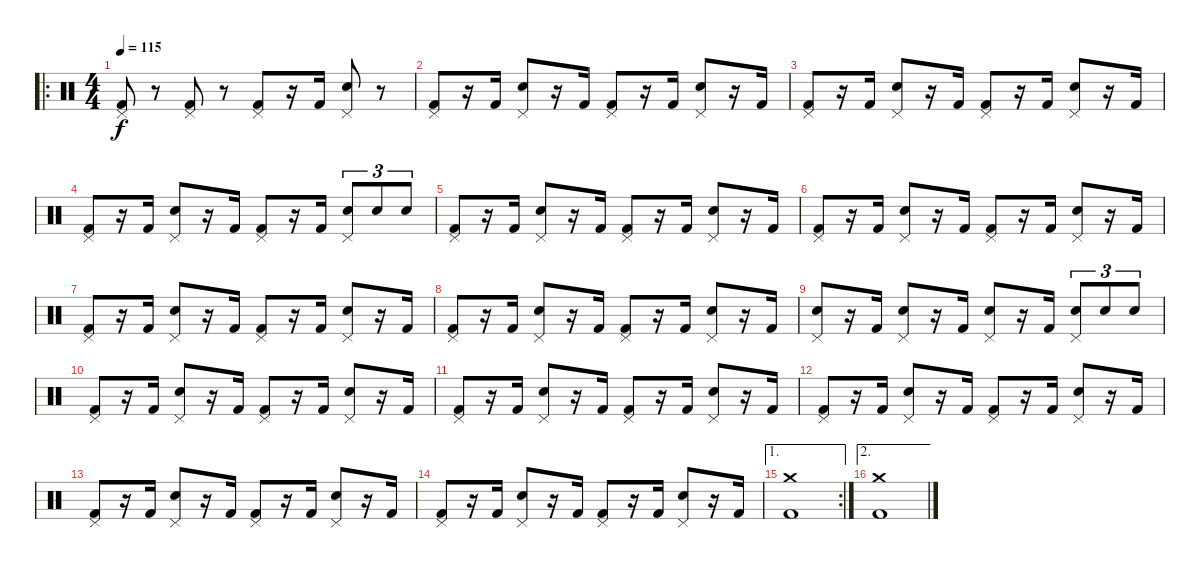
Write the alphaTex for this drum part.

\track "" {instrument percussion}
\staff {score}
\articulation defaults
\ro
\ts (4 4)
\tempo 115
\clef neutral
\ks c
("Pedal Hi-Hat (hit)" "Kick (hit) 2").8{dy f} r.8 ("Pedal Hi-Hat (hit)" "Kick (hit) 2").8 r.8 ("Pedal Hi-Hat (hit)" "Kick (hit) 2").8 r.16 "Kick (hit) 2".16 ("Pedal Hi-Hat (hit)" "Snare (hit) 2").8 r.8 |
("Pedal Hi-Hat (hit)" "Kick (hit) 2").8 r.16 "Kick (hit) 2".16 ("Pedal Hi-Hat (hit)" "Snare (hit) 2").8 r.16 "Kick (hit) 2".16 ("Pedal Hi-Hat (hit)" "Kick (hit) 2").8 r.16 "Kick (hit) 2".16 ("Pedal Hi-Hat (hit)" "Snare (hit) 2").8 r.16 "Kick (hit) 2".16 |
("Pedal Hi-Hat (hit)" "Kick (hit) 2").8 r.16 "Kick (hit) 2".16 ("Pedal Hi-Hat (hit)" "Snare (hit) 2").8 r.16 "Kick (hit) 2".16 ("Pedal Hi-Hat (hit)" "Kick (hit) 2").8 r.16 "Kick (hit) 2".16 ("Pedal Hi-Hat (hit)" "Snare (hit) 2").8 r.16 "Kick (hit) 2".16 |
("Pedal Hi-Hat (hit)" "Kick (hit) 2").8 r.16 "Kick (hit) 2".16 ("Pedal Hi-Hat (hit)" "Snare (hit) 2").8 r.16 "Kick (hit) 2".16 ("Pedal Hi-Hat (hit)" "Kick (hit) 2").8 r.16 "Kick (hit) 2".16 ("Pedal Hi-Hat (hit)" "Snare (hit) 2").8{tu (3 2)} "Snare (hit) 2".8{tu (3 2)} "Snare (hit) 2".8{tu (3 2)} |
("Pedal Hi-Hat (hit)" "Kick (hit) 2").8 r.16 "Kick (hit) 2".16 ("Pedal Hi-Hat (hit)" "Snare (hit) 2").8 r.16 "Kick (hit) 2".16 ("Pedal Hi-Hat (hit)" "Kick (hit) 2").8 r.16 "Kick (hit) 2".16 ("Pedal Hi-Hat (hit)" "Snare (hit) 2").8 r.16 "Kick (hit) 2".16 |
("Pedal Hi-Hat (hit)" "Kick (hit) 2").8 r.16 "Kick (hit) 2".16 ("Pedal Hi-Hat (hit)" "Snare (hit) 2").8 r.16 "Kick (hit) 2".16 ("Pedal Hi-Hat (hit)" "Kick (hit) 2").8 r.16 "Kick (hit) 2".16 ("Pedal Hi-Hat (hit)" "Snare (hit) 2").8 r.16 "Kick (hit) 2".16 |
("Pedal Hi-Hat (hit)" "Kick (hit) 2").8 r.16 "Kick (hit) 2".16 ("Pedal Hi-Hat (hit)" "Snare (hit) 2").8 r.16 "Kick (hit) 2".16 ("Pedal Hi-Hat (hit)" "Kick (hit) 2").8 r.16 "Kick (hit) 2".16 ("Pedal Hi-Hat (hit)" "Snare (hit) 2").8 r.16 "Kick (hit) 2".16 |
("Pedal Hi-Hat (hit)" "Kick (hit) 2").8 r.16 "Kick (hit) 2".16 ("Pedal Hi-Hat (hit)" "Snare (hit) 2").8 r.16 "Kick (hit) 2".16 ("Pedal Hi-Hat (hit)" "Kick (hit) 2").8 r.16 "Kick (hit) 2".16 ("Pedal Hi-Hat (hit)" "Snare (hit) 2").8 r.16 "Kick (hit) 2".16 |
("Pedal Hi-Hat (hit)" "Snare (hit) 2").8 r.16 "Kick (hit) 2".16 ("Pedal Hi-Hat (hit)" "Snare (hit) 2").8 r.16 "Kick (hit) 2".16 ("Pedal Hi-Hat (hit)" "Snare (hit) 2").8 r.16 "Kick (hit) 2".16 ("Pedal Hi-Hat (hit)" "Snare (hit) 2").8{tu (3 2)} "Snare (hit) 2".8{tu (3 2)} "Snare (hit) 2".8{tu (3 2)} |
("Pedal Hi-Hat (hit)" "Kick (hit) 2").8 r.16 "Kick (hit) 2".16 ("Pedal Hi-Hat (hit)" "Snare (hit) 2").8 r.16 "Kick (hit) 2".16 ("Pedal Hi-Hat (hit)" "Kick (hit) 2").8 r.16 "Kick (hit) 2".16 ("Pedal Hi-Hat (hit)" "Snare (hit) 2").8 r.16 "Kick (hit) 2".16 |
("Pedal Hi-Hat (hit)" "Kick (hit) 2").8 r.16 "Kick (hit) 2".16 ("Pedal Hi-Hat (hit)" "Snare (hit) 2").8 r.16 "Kick (hit) 2".16 ("Pedal Hi-Hat (hit)" "Kick (hit) 2").8 r.16 "Kick (hit) 2".16 ("Pedal Hi-Hat (hit)" "Snare (hit) 2").8 r.16 "Kick (hit) 2".16 |
("Pedal Hi-Hat (hit)" "Kick (hit) 2").8 r.16 "Kick (hit) 2".16 ("Pedal Hi-Hat (hit)" "Snare (hit) 2").8 r.16 "Kick (hit) 2".16 ("Pedal Hi-Hat (hit)" "Kick (hit) 2").8 r.16 "Kick (hit) 2".16 ("Pedal Hi-Hat (hit)" "Snare (hit) 2").8 r.16 "Kick (hit) 2".16 |
("Pedal Hi-Hat (hit)" "Kick (hit) 2").8 r.16 "Kick (hit) 2".16 ("Pedal Hi-Hat (hit)" "Snare (hit) 2").8 r.16 "Kick (hit) 2".16 ("Pedal Hi-Hat (hit)" "Kick (hit) 2").8 r.16 "Kick (hit) 2".16 ("Pedal Hi-Hat (hit)" "Snare (hit) 2").8 r.16 "Kick (hit) 2".16 |
("Pedal Hi-Hat (hit)" "Kick (hit) 2").8 r.16 "Kick (hit) 2".16 ("Pedal Hi-Hat (hit)" "Snare (hit) 2").8 r.16 "Kick (hit) 2".16 ("Pedal Hi-Hat (hit)" "Kick (hit) 2").8 r.16 "Kick (hit) 2".16 ("Pedal Hi-Hat (hit)" "Snare (hit) 2").8 r.16 "Kick (hit) 2".16 |
\ae 1
\rc 2
("Crash medium (hit)" "Kick (hit) 2").1 |
\ae 2
("Crash medium (hit)" "Kick (hit) 2").1
